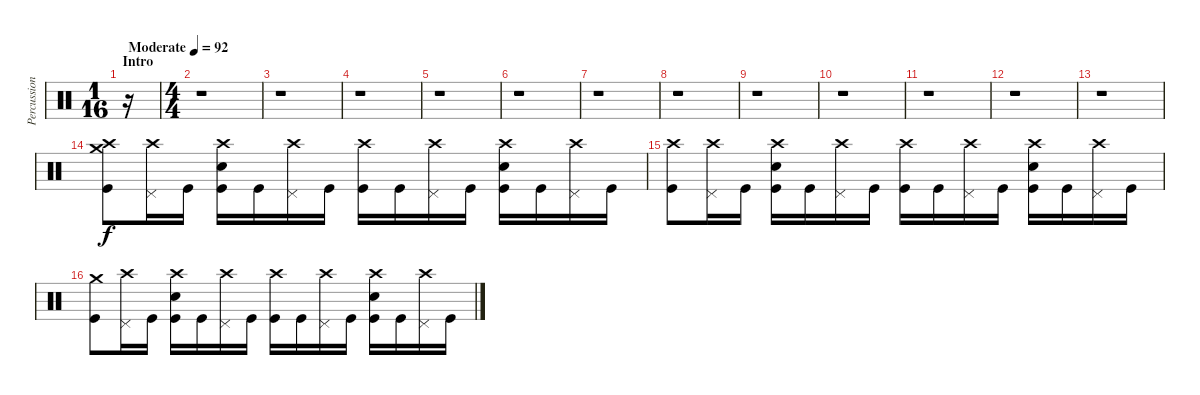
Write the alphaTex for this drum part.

\track ("Percussion" "Percussion") {instrument percussion}
\staff {score}
\articulation defaults
\ts (1 16)
\section ("" "Intro")
\tempo (92 "Moderate")
\clef neutral
\ks c
r.16{dy f} |
\ts (4 4)
r.1 |
r.1 |
r.1 |
r.1 |
r.1 |
r.1 |
r.1 |
r.1 |
r.1 |
r.1 |
r.1 |
r.1 |
("Crash high (hit)" "Crash medium (hit)" "Kick (hit)").8 ("Crash high (hit)" "Pedal Hi-Hat (hit)").16 "Kick (hit)".16 ("Crash high (hit)" "Electric Snare (hit)" "Kick (hit)").16 "Kick (hit)".16 ("Crash high (hit)" "Pedal Hi-Hat (hit)").16 "Kick (hit)".16 ("Crash high (hit)" "Kick (hit)").16 "Kick (hit)".16 ("Crash high (hit)" "Pedal Hi-Hat (hit)").16 "Kick (hit)".16 ("Crash high (hit)" "Electric Snare (hit)" "Kick (hit)").16 "Kick (hit)".16 ("Crash high (hit)" "Pedal Hi-Hat (hit)").16 "Kick (hit)".16 |
("Crash high (hit)" "Kick (hit)").8 ("Crash high (hit)" "Pedal Hi-Hat (hit)").16 "Kick (hit)".16 ("Crash high (hit)" "Electric Snare (hit)" "Kick (hit)").16 "Kick (hit)".16 ("Crash high (hit)" "Pedal Hi-Hat (hit)").16 "Kick (hit)".16 ("Crash high (hit)" "Kick (hit)").16 "Kick (hit)".16 ("Crash high (hit)" "Pedal Hi-Hat (hit)").16 "Kick (hit)".16 ("Crash high (hit)" "Electric Snare (hit)" "Kick (hit)").16 "Kick (hit)".16 ("Crash high (hit)" "Pedal Hi-Hat (hit)").16 "Kick (hit)".16 |
("Crash medium (hit)" "Kick (hit)").8 ("Crash high (hit)" "Pedal Hi-Hat (hit)").16 "Kick (hit)".16 ("Crash high (hit)" "Electric Snare (hit)" "Kick (hit)").16 "Kick (hit)".16 ("Crash high (hit)" "Pedal Hi-Hat (hit)").16 "Kick (hit)".16 ("Crash high (hit)" "Kick (hit)").16 "Kick (hit)".16 ("Crash high (hit)" "Pedal Hi-Hat (hit)").16 "Kick (hit)".16 ("Crash high (hit)" "Electric Snare (hit)" "Kick (hit)").16 "Kick (hit)".16 ("Crash high (hit)" "Pedal Hi-Hat (hit)").16 "Kick (hit)".16
